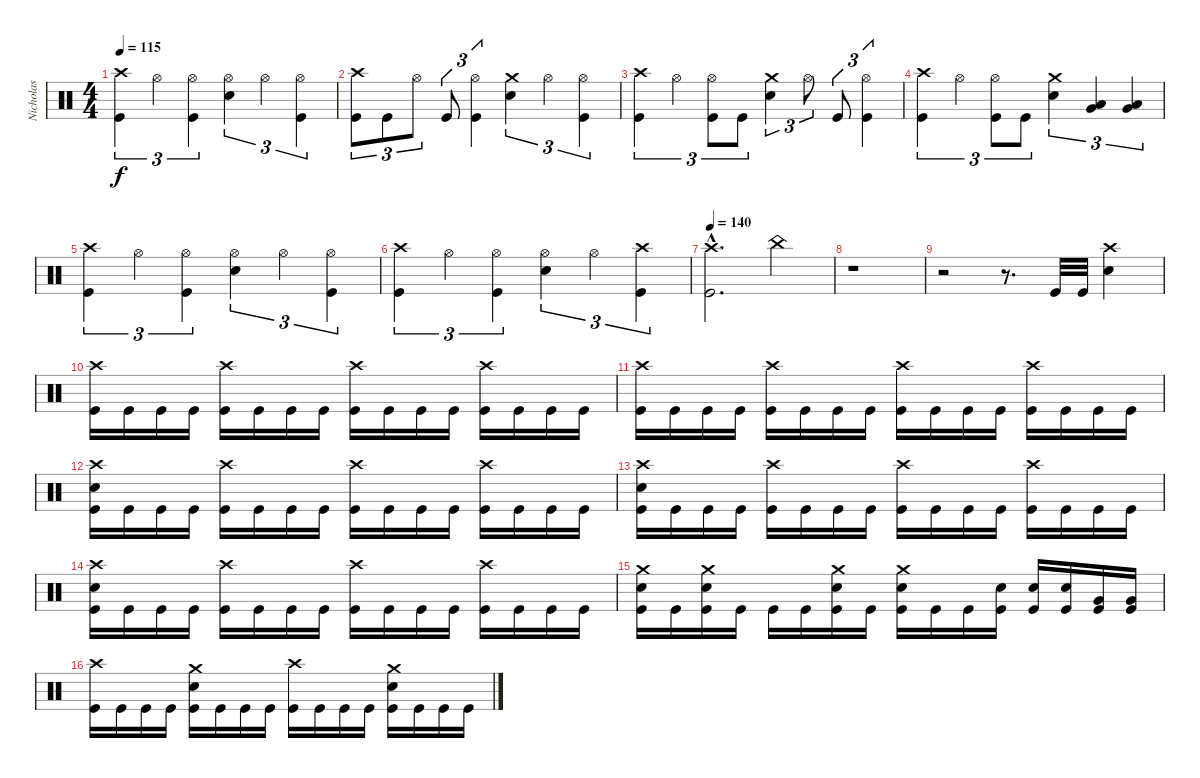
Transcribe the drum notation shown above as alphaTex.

\track ("Nicholas" "Nicholas") {instrument percussion}
\staff {score}
\articulation defaults
\ts (4 4)
\tempo 115
\clef neutral
\ks c
("Crash high (hit)" "Kick (hit)").4{tu (3 2) dy f} "Hi-Hat (open)".4{tu (3 2)} ("Hi-Hat (open)" "Kick (hit)").4{tu (3 2)} ("Hi-Hat (open)" "Electric Snare (hit)").4{tu (3 2)} "Hi-Hat (open)".4{tu (3 2)} ("Hi-Hat (open)" "Kick (hit)").4{tu (3 2)} |
("Crash high (hit)" "Kick (hit)").8{tu (3 2)} "Kick (hit)".8{tu (3 2)} "Hi-Hat (open)".8{tu (3 2)} "Kick (hit)".8{tu (3 2)} ("Hi-Hat (open)" "Kick (hit)").4{tu (3 2)} ("Crash medium (hit)" "Electric Snare (hit)").4{tu (3 2)} "Hi-Hat (open)".4{tu (3 2)} ("Hi-Hat (open)" "Kick (hit)").4{tu (3 2)} |
("Crash high (hit)" "Kick (hit)").4{tu (3 2)} "Hi-Hat (open)".4{tu (3 2)} ("Hi-Hat (open)" "Kick (hit)").8{tu (3 2)} "Kick (hit)".8{tu (3 2)} ("Crash medium (hit)" "Electric Snare (hit)").4{tu (3 2)} "Hi-Hat (open)".8{tu (3 2)} "Kick (hit)".8{tu (3 2)} ("Hi-Hat (open)" "Kick (hit)").4{tu (3 2)} |
("Crash high (hit)" "Kick (hit)").4{tu (3 2)} "Hi-Hat (open)".4{tu (3 2)} ("Hi-Hat (open)" "Kick (hit)").8{tu (3 2)} "Kick (hit)".8{tu (3 2)} ("Crash medium (hit)" "Electric Snare (hit)").4{tu (3 2)} ("Low Tom (hit)" "Very Low Tom (hit)").4{tu (3 2) bu 60} ("Low Tom (hit)" "Very Low Tom (hit)").4{tu (3 2) bu 60} |
("Crash high (hit)" "Kick (hit)").4{tu (3 2)} "Hi-Hat (open)".4{tu (3 2)} ("Hi-Hat (open)" "Kick (hit)").4{tu (3 2)} ("Hi-Hat (open)" "Electric Snare (hit)").4{tu (3 2)} "Hi-Hat (open)".4{tu (3 2)} ("Hi-Hat (open)" "Kick (hit)").4{tu (3 2)} |
("Crash high (hit)" "Kick (hit)").4{tu (3 2)} "Hi-Hat (open)".4{tu (3 2)} ("Hi-Hat (open)" "Kick (hit)").4{tu (3 2)} ("Hi-Hat (open)" "Electric Snare (hit)").4{tu (3 2)} "Hi-Hat (open)".4{tu (3 2)} ("Crash high (hit)" "Kick (hit)").4{tu (3 2)} |
\tempo 140
("Crash high (hit)"{hac} "Kick (hit)"{hac}).2{d} "China (hit)".4 |
r.1 |
r.2 r.8{d} "Kick (hit)".32 "Kick (hit)".32 ("Crash high (hit)" "Electric Snare (hit)").4 |
("Crash high (hit)" "Kick (hit)").16 "Kick (hit)".16 "Kick (hit)".16 "Kick (hit)".16 ("Crash high (hit)" "Kick (hit)").16 "Kick (hit)".16 "Kick (hit)".16 "Kick (hit)".16 ("Crash high (hit)" "Kick (hit)").16 "Kick (hit)".16 "Kick (hit)".16 "Kick (hit)".16 ("Crash high (hit)" "Kick (hit)").16 "Kick (hit)".16 "Kick (hit)".16 "Kick (hit)".16 |
("Crash high (hit)" "Kick (hit)").16 "Kick (hit)".16 "Kick (hit)".16 "Kick (hit)".16 ("Crash high (hit)" "Kick (hit)").16 "Kick (hit)".16 "Kick (hit)".16 "Kick (hit)".16 ("Crash high (hit)" "Kick (hit)").16 "Kick (hit)".16 "Kick (hit)".16 "Kick (hit)".16 ("Crash high (hit)" "Kick (hit)").16 "Kick (hit)".16 "Kick (hit)".16 "Kick (hit)".16 |
("Crash high (hit)" "Electric Snare (hit)" "Kick (hit)").16 "Kick (hit)".16 "Kick (hit)".16 "Kick (hit)".16 ("Crash high (hit)" "Kick (hit)").16 "Kick (hit)".16 "Kick (hit)".16 "Kick (hit)".16 ("Crash high (hit)" "Kick (hit)").16 "Kick (hit)".16 "Kick (hit)".16 "Kick (hit)".16 ("Crash high (hit)" "Kick (hit)").16 "Kick (hit)".16 "Kick (hit)".16 "Kick (hit)".16 |
("Crash high (hit)" "Electric Snare (hit)" "Kick (hit)").16 "Kick (hit)".16 "Kick (hit)".16 "Kick (hit)".16 ("Crash high (hit)" "Kick (hit)").16 "Kick (hit)".16 "Kick (hit)".16 "Kick (hit)".16 ("Crash high (hit)" "Kick (hit)").16 "Kick (hit)".16 "Kick (hit)".16 "Kick (hit)".16 ("Crash high (hit)" "Kick (hit)").16 "Kick (hit)".16 "Kick (hit)".16 "Kick (hit)".16 |
("Crash high (hit)" "Electric Snare (hit)" "Kick (hit)").16 "Kick (hit)".16 "Kick (hit)".16 "Kick (hit)".16 ("Crash high (hit)" "Kick (hit)").16 "Kick (hit)".16 "Kick (hit)".16 "Kick (hit)".16 ("Crash high (hit)" "Kick (hit)").16 "Kick (hit)".16 "Kick (hit)".16 "Kick (hit)".16 ("Crash high (hit)" "Kick (hit)").16 "Kick (hit)".16 "Kick (hit)".16 "Kick (hit)".16 |
("Crash medium (hit)" "Electric Snare (hit)" "Kick (hit)").16 "Kick (hit)".16 ("Crash medium (hit)" "Electric Snare (hit)" "Kick (hit)").16 "Kick (hit)".16 "Kick (hit)".16 "Kick (hit)".16 ("Crash medium (hit)" "Electric Snare (hit)" "Kick (hit)").16 "Kick (hit)".16 ("Crash medium (hit)" "Electric Snare (hit)" "Kick (hit)").16 "Kick (hit)".16 "Kick (hit)".16 ("Electric Snare (hit)" "Kick (hit)").16 ("Electric Snare (hit)" "Kick (hit)").16 ("Electric Snare (hit)" "Kick (hit)").16 ("Very Low Tom (hit)" "Kick (hit)").16 ("Very Low Tom (hit)" "Kick (hit)").16 |
("Crash high (hit)" "Kick (hit)").16 "Kick (hit)".16 "Kick (hit)".16 "Kick (hit)".16 ("Crash medium (hit)" "Electric Snare (hit)" "Kick (hit)").16 "Kick (hit)".16 "Kick (hit)".16 "Kick (hit)".16 ("Crash high (hit)" "Kick (hit)").16 "Kick (hit)".16 "Kick (hit)".16 "Kick (hit)".16 ("Crash medium (hit)" "Electric Snare (hit)" "Kick (hit)").16 "Kick (hit)".16 "Kick (hit)".16 "Kick (hit)".16
